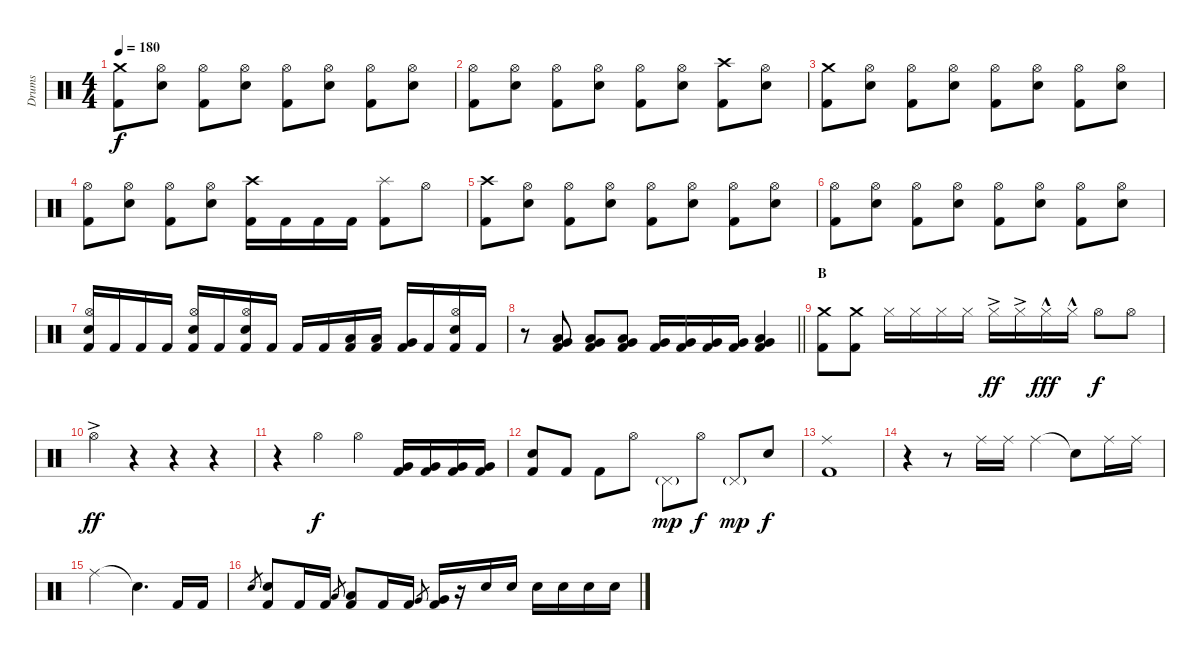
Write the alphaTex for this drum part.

\track ("Drums" "Drums") {instrument percussion}
\staff {score}
\articulation defaults
\ts (4 4)
\tempo 180
\clef neutral
\ks c
("Crash medium (hit)" "Kick (hit) 2").8{dy f} ("Hi-Hat (open)" "Electric Snare (hit)").8 ("Hi-Hat (open)" "Kick (hit) 2").8 ("Hi-Hat (open)" "Electric Snare (hit)").8 ("Hi-Hat (open)" "Kick (hit) 2").8 ("Hi-Hat (open)" "Electric Snare (hit)").8 ("Hi-Hat (open)" "Kick (hit) 2").8 ("Hi-Hat (open)" "Electric Snare (hit)").8 |
("Hi-Hat (open)" "Kick (hit) 2").8 ("Hi-Hat (open)" "Electric Snare (hit)").8 ("Hi-Hat (open)" "Kick (hit) 2").8 ("Hi-Hat (open)" "Electric Snare (hit)").8 ("Hi-Hat (open)" "Kick (hit) 2").8 ("Hi-Hat (open)" "Electric Snare (hit)").8 ("Crash high (hit)" "Kick (hit) 2").8 ("Hi-Hat (open)" "Electric Snare (hit)").8 |
("Crash medium (hit)" "Kick (hit) 2").8 ("Hi-Hat (open)" "Electric Snare (hit)").8 ("Hi-Hat (open)" "Kick (hit) 2").8 ("Hi-Hat (open)" "Electric Snare (hit)").8 ("Hi-Hat (open)" "Kick (hit) 2").8 ("Hi-Hat (open)" "Electric Snare (hit)").8 ("Hi-Hat (open)" "Kick (hit) 2").8 ("Hi-Hat (open)" "Electric Snare (hit)").8 |
("Hi-Hat (open)" "Kick (hit) 2").8 ("Hi-Hat (open)" "Electric Snare (hit)").8 ("Hi-Hat (open)" "Kick (hit) 2").8 ("Hi-Hat (open)" "Electric Snare (hit)").8 ("Crash high (hit)" "Kick (hit) 2").16 "Kick (hit) 2".16 "Kick (hit) 2".16 "Kick (hit) 2".16 ("Splash (hit)" "Kick (hit) 2").8 "Hi-Hat (open)".8 |
("Crash high (hit)" "Kick (hit) 2").8 ("Hi-Hat (open)" "Electric Snare (hit)").8 ("Hi-Hat (open)" "Kick (hit) 2").8 ("Hi-Hat (open)" "Electric Snare (hit)").8 ("Hi-Hat (open)" "Kick (hit) 2").8 ("Hi-Hat (open)" "Electric Snare (hit)").8 ("Hi-Hat (open)" "Kick (hit) 2").8 ("Hi-Hat (open)" "Electric Snare (hit)").8 |
("Hi-Hat (open)" "Kick (hit) 2").8 ("Hi-Hat (open)" "Electric Snare (hit)").8 ("Hi-Hat (open)" "Kick (hit) 2").8 ("Hi-Hat (open)" "Electric Snare (hit)").8 ("Hi-Hat (open)" "Kick (hit) 2").8 ("Hi-Hat (open)" "Electric Snare (hit)").8 ("Hi-Hat (open)" "Kick (hit) 2").8 ("Hi-Hat (open)" "Electric Snare (hit)").8 |
("Hi-Hat (open)" "Electric Snare (hit)" "Kick (hit) 2").16 "Kick (hit) 2".16 "Kick (hit) 2".16 "Kick (hit) 2".16 ("Hi-Hat (open)" "Electric Snare (hit)" "Kick (hit) 2").16 "Kick (hit) 2".16 ("Hi-Hat (open)" "Electric Snare (hit)" "Kick (hit) 2").16 "Kick (hit) 2".16 "Kick (hit) 2".16 "Kick (hit) 2".16 ("Low Tom (hit)" "Kick (hit) 2").16 ("Low Tom (hit)" "Kick (hit) 2").16 ("Very Low Tom (hit)" "Kick (hit) 2").16 "Kick (hit) 2".16 ("Hi-Hat (open)" "Electric Snare (hit)" "Kick (hit) 2").16 "Kick (hit) 2".16 |
\barLineRight lightlight
r.8 ("Low Tom (hit)" "Very Low Tom (hit)" "Kick (hit) 2").8 ("Low Tom (hit)" "Very Low Tom (hit)" "Kick (hit) 2").8 ("Low Tom (hit)" "Very Low Tom (hit)" "Kick (hit) 2").8 ("Very Low Tom (hit)" "Kick (hit) 2").16 ("Very Low Tom (hit)" "Kick (hit) 2").16 ("Very Low Tom (hit)" "Kick (hit) 2").16 ("Very Low Tom (hit)" "Kick (hit) 2").16 ("Low Tom (hit)" "Very Low Tom (hit)" "Kick (hit) 2").4 |
\section ("" "B")
("Crash medium (hit)" "Kick (hit) 2").8 ("Crash medium (hit)" "Kick (hit) 2").8 "Hi-Hat (closed)".16 "Hi-Hat (closed)".16 "Hi-Hat (closed)".16 "Hi-Hat (closed)".16 "Hi-Hat (closed)"{ac}.16{dy ff} "Hi-Hat (closed)"{ac}.16 "Hi-Hat (closed)"{hac}.16{dy fff} "Hi-Hat (closed)"{hac}.16 "Hi-Hat (open)".8{dy f} "Hi-Hat (open)".8 |
"Hi-Hat (open)"{ac}.4{dy ff} r.4 r.4 r.4 |
r.4 "Hi-Hat (open)".4{dy f} "Hi-Hat (open)".4 ("Very Low Tom (hit)" "Kick (hit) 2").16 ("Very Low Tom (hit)" "Kick (hit) 2").16 ("Very Low Tom (hit)" "Kick (hit) 2").16 ("Very Low Tom (hit)" "Kick (hit) 2").16 |
("Electric Snare (hit)" "Kick (hit) 2").8 "Kick (hit) 2".8 "Kick (hit) 2".8 "Hi-Hat (open)".8 "Pedal Hi-Hat (hit)"{g}.8{dy mp} "Hi-Hat (open)".8{dy f} "Pedal Hi-Hat (hit)"{g}.8{dy mp} "Electric Snare (hit)".8{dy f} |
("Ride (middle)" "Kick (hit) 2").1 |
r.4 r.8 "Ride (middle)".16 "Ride (middle)".16 "Ride (middle)".4 "Snare (hit)"{t}.8 "Ride (middle)".16 "Ride (middle)".16 |
"Ride (middle)".2 "Snare (hit)"{t}.4{d} "Kick (hit) 2".16 "Kick (hit) 2".16 |
"Electric Snare (hit)".8{gr} ("Electric Snare (hit)" "Kick (hit) 2").8 "Kick (hit) 2".16 "Kick (hit) 2".16 "Low Tom (hit)".8{gr} ("Low Tom (hit)" "Kick (hit) 2").8 "Kick (hit) 2".16 "Kick (hit) 2".16 "Very Low Tom (hit)".8{gr} ("Very Low Tom (hit)" "Kick (hit) 2").16 r.16 "Electric Snare (hit)".16 "Electric Snare (hit)".16 "Electric Snare (hit)".16 "Electric Snare (hit)".16 "Electric Snare (hit)".16 "Electric Snare (hit)".16
